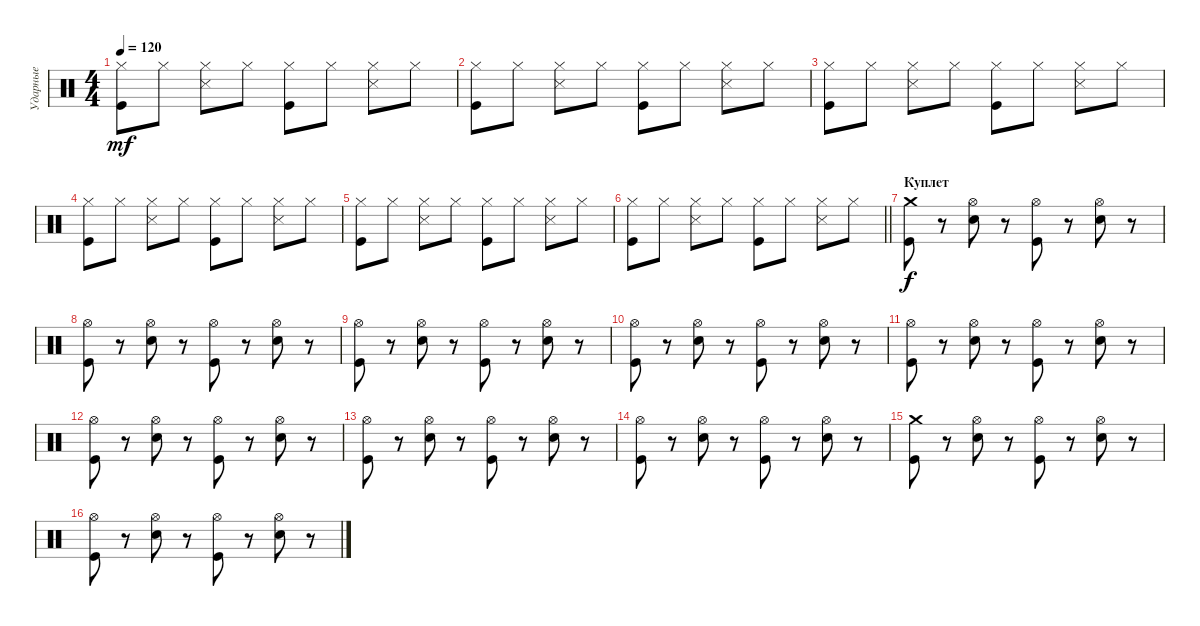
\track ("Ударные" "Ударные") {instrument percussion}
\staff {score}
\articulation defaults
\ts (4 4)
\tempo 120
\clef neutral
\ks c
("Hi-Hat (closed)" "Kick (hit)").8{dy mf} "Hi-Hat (closed)".8 ("Hi-Hat (closed)" "Snare (side stick) 3").8 "Hi-Hat (closed)".8 ("Hi-Hat (closed)" "Kick (hit)").8 "Hi-Hat (closed)".8 ("Hi-Hat (closed)" "Snare (side stick) 3").8 "Hi-Hat (closed)".8 |
("Hi-Hat (closed)" "Kick (hit)").8 "Hi-Hat (closed)".8 ("Hi-Hat (closed)" "Snare (side stick) 3").8 "Hi-Hat (closed)".8 ("Hi-Hat (closed)" "Kick (hit)").8 "Hi-Hat (closed)".8 ("Hi-Hat (closed)" "Snare (side stick) 3").8 "Hi-Hat (closed)".8 |
("Hi-Hat (closed)" "Kick (hit)").8 "Hi-Hat (closed)".8 ("Hi-Hat (closed)" "Snare (side stick) 3").8 "Hi-Hat (closed)".8 ("Hi-Hat (closed)" "Kick (hit)").8 "Hi-Hat (closed)".8 ("Hi-Hat (closed)" "Snare (side stick) 3").8 "Hi-Hat (closed)".8 |
("Hi-Hat (closed)" "Kick (hit)").8 "Hi-Hat (closed)".8 ("Hi-Hat (closed)" "Snare (side stick) 3").8 "Hi-Hat (closed)".8 ("Hi-Hat (closed)" "Kick (hit)").8 "Hi-Hat (closed)".8 ("Hi-Hat (closed)" "Snare (side stick) 3").8 "Hi-Hat (closed)".8 |
("Hi-Hat (closed)" "Kick (hit)").8 "Hi-Hat (closed)".8 ("Hi-Hat (closed)" "Snare (side stick) 3").8 "Hi-Hat (closed)".8 ("Hi-Hat (closed)" "Kick (hit)").8 "Hi-Hat (closed)".8 ("Hi-Hat (closed)" "Snare (side stick) 3").8 "Hi-Hat (closed)".8 |
\barLineRight lightlight
("Hi-Hat (closed)" "Kick (hit)").8 "Hi-Hat (closed)".8 ("Hi-Hat (closed)" "Snare (side stick) 3").8 "Hi-Hat (closed)".8 ("Hi-Hat (closed)" "Kick (hit)").8 "Hi-Hat (closed)".8 ("Hi-Hat (closed)" "Snare (side stick) 3").8 "Hi-Hat (closed)".8 |
\section ("" "Куплет")
("Crash medium (hit)" "Kick (hit)").8{dy f} r.8 ("Hi-Hat (open)" "Electric Snare (hit)").8 r.8 ("Hi-Hat (open)" "Kick (hit)").8 r.8 ("Hi-Hat (open)" "Electric Snare (hit)").8 r.8 |
("Hi-Hat (open)" "Kick (hit)").8 r.8 ("Hi-Hat (open)" "Electric Snare (hit)").8 r.8 ("Hi-Hat (open)" "Kick (hit)").8 r.8 ("Hi-Hat (open)" "Electric Snare (hit)").8 r.8 |
("Hi-Hat (open)" "Kick (hit)").8 r.8 ("Hi-Hat (open)" "Electric Snare (hit)").8 r.8 ("Hi-Hat (open)" "Kick (hit)").8 r.8 ("Hi-Hat (open)" "Electric Snare (hit)").8 r.8 |
("Hi-Hat (open)" "Kick (hit)").8 r.8 ("Hi-Hat (open)" "Electric Snare (hit)").8 r.8 ("Hi-Hat (open)" "Kick (hit)").8 r.8 ("Hi-Hat (open)" "Electric Snare (hit)").8 r.8 |
("Hi-Hat (open)" "Kick (hit)").8 r.8 ("Hi-Hat (open)" "Electric Snare (hit)").8 r.8 ("Hi-Hat (open)" "Kick (hit)").8 r.8 ("Hi-Hat (open)" "Electric Snare (hit)").8 r.8 |
("Hi-Hat (open)" "Kick (hit)").8 r.8 ("Hi-Hat (open)" "Electric Snare (hit)").8 r.8 ("Hi-Hat (open)" "Kick (hit)").8 r.8 ("Hi-Hat (open)" "Electric Snare (hit)").8 r.8 |
("Hi-Hat (open)" "Kick (hit)").8 r.8 ("Hi-Hat (open)" "Electric Snare (hit)").8 r.8 ("Hi-Hat (open)" "Kick (hit)").8 r.8 ("Hi-Hat (open)" "Electric Snare (hit)").8 r.8 |
("Hi-Hat (open)" "Kick (hit)").8 r.8 ("Hi-Hat (open)" "Electric Snare (hit)").8 r.8 ("Hi-Hat (open)" "Kick (hit)").8 r.8 ("Hi-Hat (open)" "Electric Snare (hit)").8 r.8 |
("Crash medium (hit)" "Kick (hit)").8 r.8 ("Hi-Hat (open)" "Electric Snare (hit)").8 r.8 ("Hi-Hat (open)" "Kick (hit)").8 r.8 ("Hi-Hat (open)" "Electric Snare (hit)").8 r.8 |
("Hi-Hat (open)" "Kick (hit)").8 r.8 ("Hi-Hat (open)" "Electric Snare (hit)").8 r.8 ("Hi-Hat (open)" "Kick (hit)").8 r.8 ("Hi-Hat (open)" "Electric Snare (hit)").8 r.8
